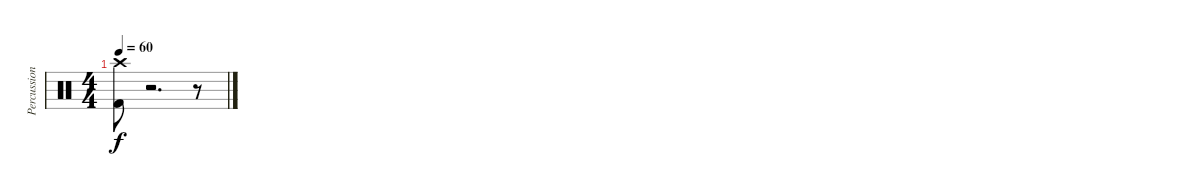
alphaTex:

\track ("Percussion 1" "Percussion") {instrument percussion}
\staff {score}
\articulation defaults
\ts (4 4)
\tempo 60
\clef neutral
\ks c
("Crash high (hit)" "Kick (hit) 2").8{dy f} r.2{d} r.8
